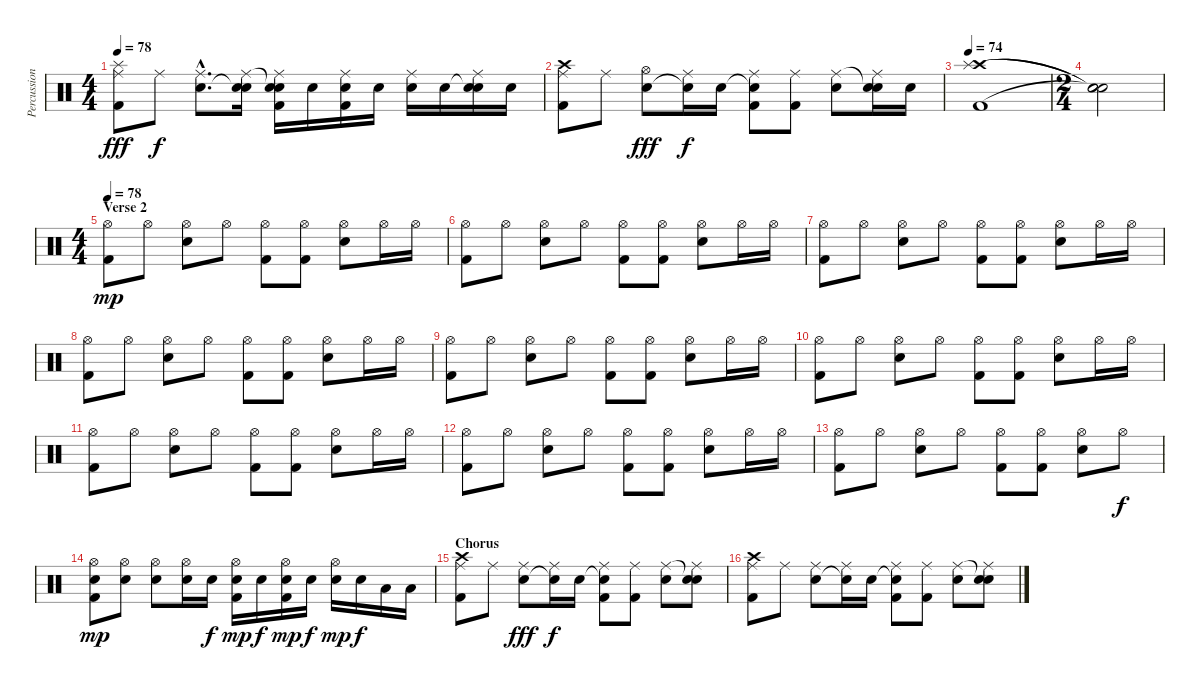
\track ("Percussion" "Percussion") {instrument percussion}
\staff {score}
\articulation defaults
\ts (4 4)
\tempo 78
\clef neutral
\ks c
("Splash (hit)" "Ride (middle)" "Kick (hit) 2").8{dy fff} "Ride (middle)".8{dy f} ("Ride (middle)"{hac} "Electric Snare (hit)"{hac}).8{d} ("Ride (middle)" "Snare (hit)"{t} "Snare (hit) 2").16 ("Snare (hit)"{t} "Ride (middle)" "Electric Snare (hit)" "Kick (hit) 2").16 "Electric Snare (hit)".16 ("Ride (middle)" "Snare (hit) 2" "Kick (hit) 2").16 "Snare (hit) 2".16 ("Ride (middle)" "Electric Snare (hit)").16 "Electric Snare (hit)".16 ("Snare (hit)"{t} "Ride (middle)" "Electric Snare (hit)").16 "Electric Snare (hit)".16 |
("Crash high (hit)" "Ride (middle)" "Kick (hit) 2").8 "Ride (middle)".8 ("Hi-Hat (open)" "Electric Snare (hit)").8{dy fff} ("Ride (middle)" "Snare (hit)"{t}).16{dy f} "Snare (hit) 2".16 ("Snare (hit)"{t} "Ride (middle)" "Kick (hit) 2").8 ("Ride (middle)" "Kick (hit) 2").8 ("Ride (middle)" "Electric Snare (hit)").8 ("Snare (hit)"{t} "Ride (middle)" "Electric Snare (hit)").16 "Electric Snare (hit)".16 |
\tempo 74
("Crash high (hit)" "Splash (hit)" "Kick (hit) 2").1 |
\ts (2 4)
("Snare (hit)"{t} "Snare (hit)"{t} "Snare (hit)"{t}).2 |
\ts (4 4)
\section ("" "Verse 2")
\tempo 78
("Hi-Hat (open)" "Kick (hit) 2").8{dy mp} "Hi-Hat (open)".8 ("Hi-Hat (open)" "Electric Snare (hit)").8 "Hi-Hat (open)".8 ("Hi-Hat (open)" "Kick (hit) 2").8 ("Hi-Hat (open)" "Kick (hit) 2").8 ("Hi-Hat (open)" "Electric Snare (hit)").8 "Hi-Hat (open)".16 "Hi-Hat (open)".16 |
("Hi-Hat (open)" "Kick (hit) 2").8 "Hi-Hat (open)".8 ("Hi-Hat (open)" "Electric Snare (hit)").8 "Hi-Hat (open)".8 ("Hi-Hat (open)" "Kick (hit) 2").8 ("Hi-Hat (open)" "Kick (hit) 2").8 ("Hi-Hat (open)" "Electric Snare (hit)").8 "Hi-Hat (open)".16 "Hi-Hat (open)".16 |
("Hi-Hat (open)" "Kick (hit) 2").8 "Hi-Hat (open)".8 ("Hi-Hat (open)" "Electric Snare (hit)").8 "Hi-Hat (open)".8 ("Hi-Hat (open)" "Kick (hit) 2").8 ("Hi-Hat (open)" "Kick (hit) 2").8 ("Hi-Hat (open)" "Electric Snare (hit)").8 "Hi-Hat (open)".16 "Hi-Hat (open)".16 |
("Hi-Hat (open)" "Kick (hit) 2").8 "Hi-Hat (open)".8 ("Hi-Hat (open)" "Electric Snare (hit)").8 "Hi-Hat (open)".8 ("Hi-Hat (open)" "Kick (hit) 2").8 ("Hi-Hat (open)" "Kick (hit) 2").8 ("Hi-Hat (open)" "Electric Snare (hit)").8 "Hi-Hat (open)".16 "Hi-Hat (open)".16 |
("Hi-Hat (open)" "Kick (hit) 2").8 "Hi-Hat (open)".8 ("Hi-Hat (open)" "Electric Snare (hit)").8 "Hi-Hat (open)".8 ("Hi-Hat (open)" "Kick (hit) 2").8 ("Hi-Hat (open)" "Kick (hit) 2").8 ("Hi-Hat (open)" "Electric Snare (hit)").8 "Hi-Hat (open)".16 "Hi-Hat (open)".16 |
("Hi-Hat (open)" "Kick (hit) 2").8 "Hi-Hat (open)".8 ("Hi-Hat (open)" "Electric Snare (hit)").8 "Hi-Hat (open)".8 ("Hi-Hat (open)" "Kick (hit) 2").8 ("Hi-Hat (open)" "Kick (hit) 2").8 ("Hi-Hat (open)" "Electric Snare (hit)").8 "Hi-Hat (open)".16 "Hi-Hat (open)".16 |
("Hi-Hat (open)" "Kick (hit) 2").8 "Hi-Hat (open)".8 ("Hi-Hat (open)" "Electric Snare (hit)").8 "Hi-Hat (open)".8 ("Hi-Hat (open)" "Kick (hit) 2").8 ("Hi-Hat (open)" "Kick (hit) 2").8 ("Hi-Hat (open)" "Electric Snare (hit)").8 "Hi-Hat (open)".16 "Hi-Hat (open)".16 |
("Hi-Hat (open)" "Kick (hit) 2").8 "Hi-Hat (open)".8 ("Hi-Hat (open)" "Electric Snare (hit)").8 "Hi-Hat (open)".8 ("Hi-Hat (open)" "Kick (hit) 2").8 ("Hi-Hat (open)" "Kick (hit) 2").8 ("Hi-Hat (open)" "Electric Snare (hit)").8 "Hi-Hat (open)".16 "Hi-Hat (open)".16 |
("Hi-Hat (open)" "Kick (hit) 2").8 "Hi-Hat (open)".8 ("Hi-Hat (open)" "Electric Snare (hit)").8 "Hi-Hat (open)".8 ("Hi-Hat (open)" "Kick (hit) 2").8 ("Hi-Hat (open)" "Kick (hit) 2").8 ("Hi-Hat (open)" "Electric Snare (hit)").8 "Hi-Hat (open)".8{dy f} |
("Hi-Hat (open)" "Electric Snare (hit)" "Kick (hit) 2").8{dy mp} ("Hi-Hat (open)" "Electric Snare (hit)").8 ("Hi-Hat (open)" "Electric Snare (hit)").8 ("Hi-Hat (open)" "Electric Snare (hit)").16 "Electric Snare (hit)".16{dy f} ("Hi-Hat (open)" "Electric Snare (hit)" "Kick (hit) 2").16{dy mp} "Electric Snare (hit)".16{dy f} ("Hi-Hat (open)" "Electric Snare (hit)" "Kick (hit) 2").16{dy mp} "Electric Snare (hit)".16{dy f} ("Hi-Hat (open)" "Electric Snare (hit)").16{dy mp} "Electric Snare (hit)".16{dy f} "Low Tom (hit)".16 "Low Tom (hit)".16 |
\section ("" "Chorus")
("Crash high (hit)" "Ride (middle)" "Kick (hit) 2").8 "Ride (middle)".8 ("Ride (middle)" "Electric Snare (hit)").8{dy fff} ("Ride (middle)" "Snare (hit)"{t}).16{dy f} "Snare (hit) 2".16 ("Snare (hit)"{t} "Ride (middle)" "Kick (hit) 2").8 ("Ride (middle)" "Kick (hit) 2").8 ("Ride (middle)" "Electric Snare (hit)").8 ("Snare (hit)"{t} "Ride (middle)" "Electric Snare (hit)").8 |
("Crash high (hit)" "Ride (middle)" "Kick (hit) 2").8 "Ride (middle)".8 ("Ride (middle)" "Electric Snare (hit)").8 ("Ride (middle)" "Snare (hit)"{t}).16 "Snare (hit) 2".16 ("Snare (hit)"{t} "Ride (middle)" "Kick (hit) 2").8 ("Ride (middle)" "Kick (hit) 2").8 ("Ride (middle)" "Electric Snare (hit)").8 ("Snare (hit)"{t} "Ride (middle)" "Electric Snare (hit)").8
